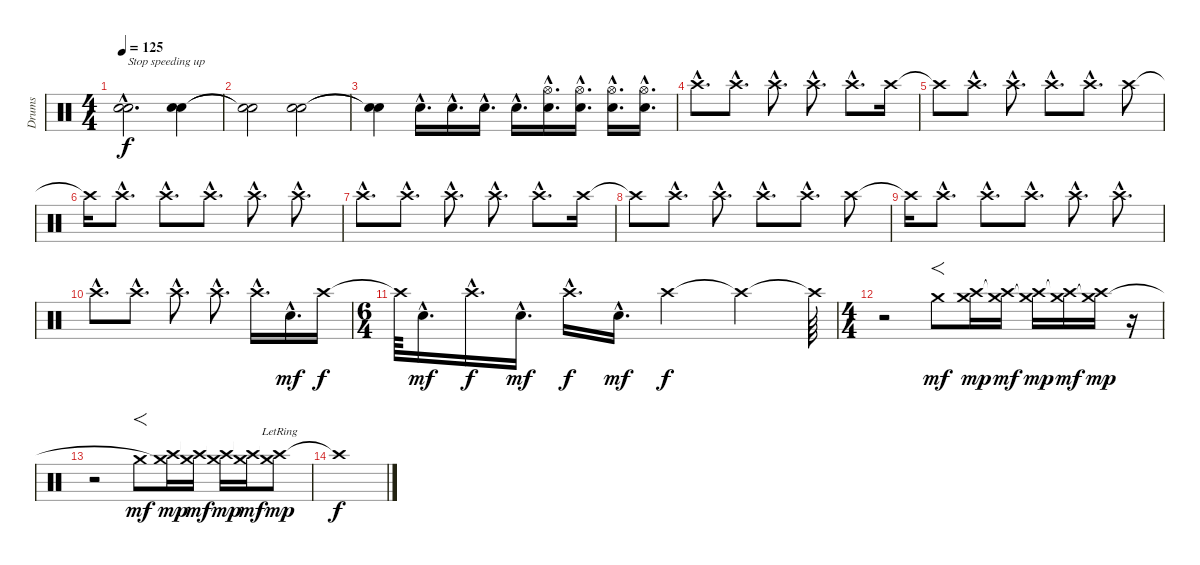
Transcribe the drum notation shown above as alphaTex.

\track ("Drums" "Drums") {instrument percussion}
\staff {score}
\articulation defaults
\ts (4 4)
\tempo 125
\clef neutral
\ks c
("Snare (hit) 2"{hac} "Electric Snare (hit)"{hac}).2{d txt "Stop speeding up" dy f} ("Snare (hit) 2" "Electric Snare (hit)").4 |
("Snare (hit) 2"{t} "Electric Snare (hit)"{t}).2 ("Snare (hit) 2" "Electric Snare (hit)").2 |
("Snare (hit) 2"{t} "Electric Snare (hit)"{t}).4 "Snare (hit) 2"{hac}.16{d} "Snare (hit) 2"{hac}.16{d} "Snare (hit) 2"{hac}.16{d} "Snare (hit) 2"{hac}.16{d} ("Hi-Hat (open)"{hac} "Snare (hit) 2"{hac}).16{d} ("Hi-Hat (open)"{hac} "Snare (hit) 2"{hac}).16{d} ("Hi-Hat (open)"{hac} "Snare (hit) 2"{hac}).16{d} ("Hi-Hat (open)"{hac} "Snare (hit) 2"{hac}).16{d} |
"Crash high (hit)"{hac}.8{d} "Crash high (hit)"{hac}.8{d} "Crash high (hit)"{hac}.8{d} "Crash high (hit)"{hac}.8{d} "Crash high (hit)"{hac}.8{d} "Crash high (hit)".16 |
"Crash high (hit)"{t}.8 "Crash high (hit)"{hac}.8{d} "Crash high (hit)"{hac}.8{d} "Crash high (hit)"{hac}.8{d} "Crash high (hit)"{hac}.8{d} "Crash high (hit)".8 |
"Crash high (hit)"{t}.16 "Crash high (hit)"{hac}.8{d} "Crash high (hit)"{hac}.8{d} "Crash high (hit)"{hac}.8{d} "Crash high (hit)"{hac}.8{d} "Crash high (hit)"{hac}.8{d} |
"Crash high (hit)"{hac}.8{d} "Crash high (hit)"{hac}.8{d} "Crash high (hit)"{hac}.8{d} "Crash high (hit)"{hac}.8{d} "Crash high (hit)"{hac}.8{d} "Crash high (hit)".16 |
"Crash high (hit)"{t}.8 "Crash high (hit)"{hac}.8{d} "Crash high (hit)"{hac}.8{d} "Crash high (hit)"{hac}.8{d} "Crash high (hit)"{hac}.8{d} "Crash high (hit)".8 |
"Crash high (hit)"{t}.16 "Crash high (hit)"{hac}.8{d} "Crash high (hit)"{hac}.8{d} "Crash high (hit)"{hac}.8{d} "Crash high (hit)"{hac}.8{d} "Crash high (hit)"{hac}.8{d} |
"Crash high (hit)"{hac}.8{d} "Crash high (hit)"{hac}.8{d} "Crash high (hit)"{hac}.8{d} "Crash high (hit)"{hac}.8{d} "Crash high (hit)"{hac}.16{d} "Snare (hit) 2"{hac}.16{d dy mf} "Crash high (hit)".16{dy f} |
\ts (6 4)
"Crash high (hit)"{t}.64 "Snare (hit) 2"{hac}.16{d dy mf} "Crash high (hit)"{hac}.16{d dy f} "Snare (hit) 2"{hac}.16{d dy mf} "Crash high (hit)"{hac}.16{d dy f} "Snare (hit) 2"{hac}.16{d dy mf} "Crash high (hit)".2{dy f} "Crash high (hit)"{t}.2 "Crash high (hit)"{t}.64 |
\ts (4 4)
r.2 "Crash medium (hit)".8{f dy mf} ("Crash high (hit)" "Crash medium (hit)").16{dy mp} ("Crash high (hit)"{t} "Crash medium (hit)").16{dy mf} ("Crash high (hit)" "Crash medium (hit)"{t}).16{dy mp} ("Crash high (hit)"{t} "Crash medium (hit)").16{dy mf} ("Crash high (hit)" "Crash medium (hit)"{t}).16{dy mp} r.16 |
r.2 "Crash medium (hit)".8{f dy mf} ("Crash high (hit)" "Crash medium (hit)"{t}).16{dy mp} ("Crash high (hit)"{t} "Crash medium (hit)").16{dy mf} ("Crash high (hit)" "Crash medium (hit)"{t}).16{dy mp} ("Crash high (hit)"{t} "Crash medium (hit)").16{dy mf} ("Crash high (hit)"{lr} "Crash medium (hit)"{t}).8{dy mp} |
"Crash high (hit)"{t}.1{dy f}
